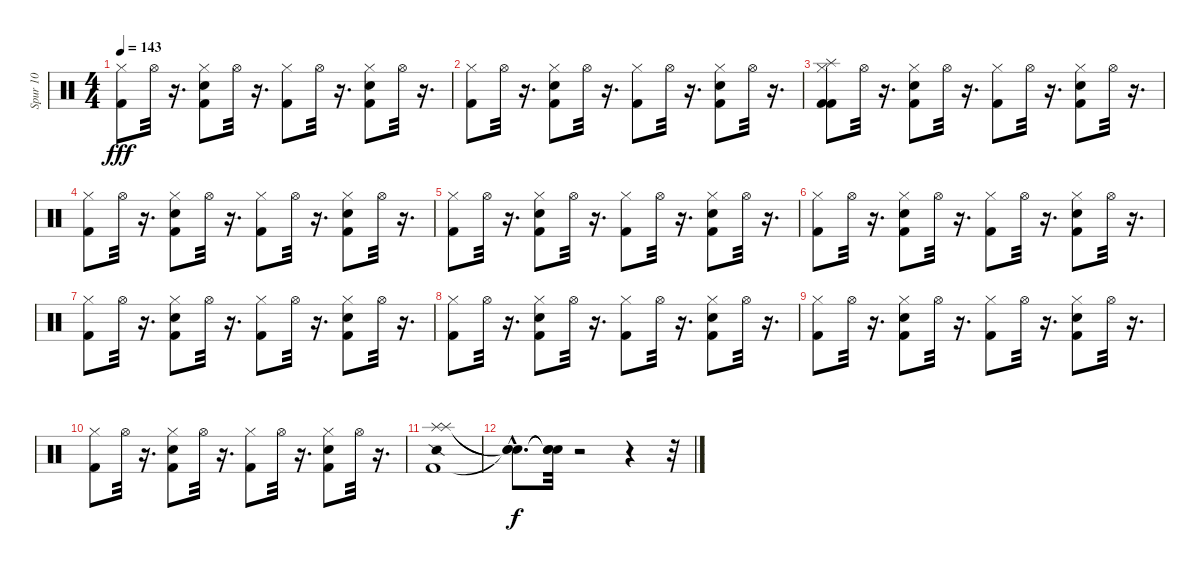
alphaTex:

\track ("Spur 10" "Spur 10") {instrument percussion}
\staff {score}
\articulation defaults
\ts (4 4)
\tempo 143
\clef neutral
\ks c
("Hi-Hat (closed)" "Kick (hit) 2").8{dy fff} "Hi-Hat (open)".32 r.16{d} ("Hi-Hat (closed)" "Electric Snare (hit)" "Kick (hit) 2").8 "Hi-Hat (open)".32 r.16{d} ("Hi-Hat (closed)" "Kick (hit) 2").8 "Hi-Hat (open)".32 r.16{d} ("Hi-Hat (closed)" "Electric Snare (hit)" "Kick (hit) 2").8 "Hi-Hat (open)".32 r.16{d} |
("Hi-Hat (closed)" "Kick (hit) 2").8 "Hi-Hat (open)".32 r.16{d} ("Hi-Hat (closed)" "Electric Snare (hit)" "Kick (hit) 2").8 "Hi-Hat (open)".32 r.16{d} ("Hi-Hat (closed)" "Kick (hit) 2").8 "Hi-Hat (open)".32 r.16{d} ("Hi-Hat (closed)" "Electric Snare (hit)" "Kick (hit) 2").8 "Hi-Hat (open)".32 r.16{d} |
("Hi-Hat (closed)" "Kick (hit) 2" "Splash (hit)" "Kick (hit) 2").8 "Hi-Hat (open)".32 r.16{d} ("Hi-Hat (closed)" "Electric Snare (hit)" "Kick (hit) 2").8 "Hi-Hat (open)".32 r.16{d} ("Hi-Hat (closed)" "Kick (hit) 2").8 "Hi-Hat (open)".32 r.16{d} ("Hi-Hat (closed)" "Electric Snare (hit)" "Kick (hit) 2").8 "Hi-Hat (open)".32 r.16{d} |
("Hi-Hat (closed)" "Kick (hit) 2").8 "Hi-Hat (open)".32 r.16{d} ("Hi-Hat (closed)" "Electric Snare (hit)" "Kick (hit) 2").8 "Hi-Hat (open)".32 r.16{d} ("Hi-Hat (closed)" "Kick (hit) 2").8 "Hi-Hat (open)".32 r.16{d} ("Hi-Hat (closed)" "Electric Snare (hit)" "Kick (hit) 2").8 "Hi-Hat (open)".32 r.16{d} |
("Hi-Hat (closed)" "Kick (hit) 2").8 "Hi-Hat (open)".32 r.16{d} ("Hi-Hat (closed)" "Electric Snare (hit)" "Kick (hit) 2").8 "Hi-Hat (open)".32 r.16{d} ("Hi-Hat (closed)" "Kick (hit) 2").8 "Hi-Hat (open)".32 r.16{d} ("Hi-Hat (closed)" "Electric Snare (hit)" "Kick (hit) 2").8 "Hi-Hat (open)".32 r.16{d} |
("Hi-Hat (closed)" "Kick (hit) 2").8 "Hi-Hat (open)".32 r.16{d} ("Hi-Hat (closed)" "Electric Snare (hit)" "Kick (hit) 2").8 "Hi-Hat (open)".32 r.16{d} ("Hi-Hat (closed)" "Kick (hit) 2").8 "Hi-Hat (open)".32 r.16{d} ("Hi-Hat (closed)" "Electric Snare (hit)" "Kick (hit) 2").8 "Hi-Hat (open)".32 r.16{d} |
("Hi-Hat (closed)" "Kick (hit) 2").8 "Hi-Hat (open)".32 r.16{d} ("Hi-Hat (closed)" "Electric Snare (hit)" "Kick (hit) 2").8 "Hi-Hat (open)".32 r.16{d} ("Hi-Hat (closed)" "Kick (hit) 2").8 "Hi-Hat (open)".32 r.16{d} ("Hi-Hat (closed)" "Electric Snare (hit)" "Kick (hit) 2").8 "Hi-Hat (open)".32 r.16{d} |
("Hi-Hat (closed)" "Kick (hit) 2").8 "Hi-Hat (open)".32 r.16{d} ("Hi-Hat (closed)" "Electric Snare (hit)" "Kick (hit) 2").8 "Hi-Hat (open)".32 r.16{d} ("Hi-Hat (closed)" "Kick (hit) 2").8 "Hi-Hat (open)".32 r.16{d} ("Hi-Hat (closed)" "Electric Snare (hit)" "Kick (hit) 2").8 "Hi-Hat (open)".32 r.16{d} |
("Hi-Hat (closed)" "Kick (hit) 2").8 "Hi-Hat (open)".32 r.16{d} ("Hi-Hat (closed)" "Electric Snare (hit)" "Kick (hit) 2").8 "Hi-Hat (open)".32 r.16{d} ("Hi-Hat (closed)" "Kick (hit) 2").8 "Hi-Hat (open)".32 r.16{d} ("Hi-Hat (closed)" "Electric Snare (hit)" "Kick (hit) 2").8 "Hi-Hat (open)".32 r.16{d} |
("Hi-Hat (closed)" "Kick (hit) 2").8 "Hi-Hat (open)".32 r.16{d} ("Hi-Hat (closed)" "Electric Snare (hit)" "Kick (hit) 2").8 "Hi-Hat (open)".32 r.16{d} ("Hi-Hat (closed)" "Kick (hit) 2").8 "Hi-Hat (open)".32 r.16{d} ("Hi-Hat (closed)" "Electric Snare (hit)" "Kick (hit) 2").8 "Hi-Hat (open)".32 r.16{d} |
("Splash (hit)" "Splash (hit)" "Kick (hit) 2" "Snare (side stick) 2").1 |
("Snare (hit)"{hac t} "Snare (hit)"{hac t} "Snare (hit)"{hac t}).8{d dy f} ("Snare (hit)"{t} "Snare (hit)"{t} "Snare (hit)"{t}).32 r.2 r.4 r.32
